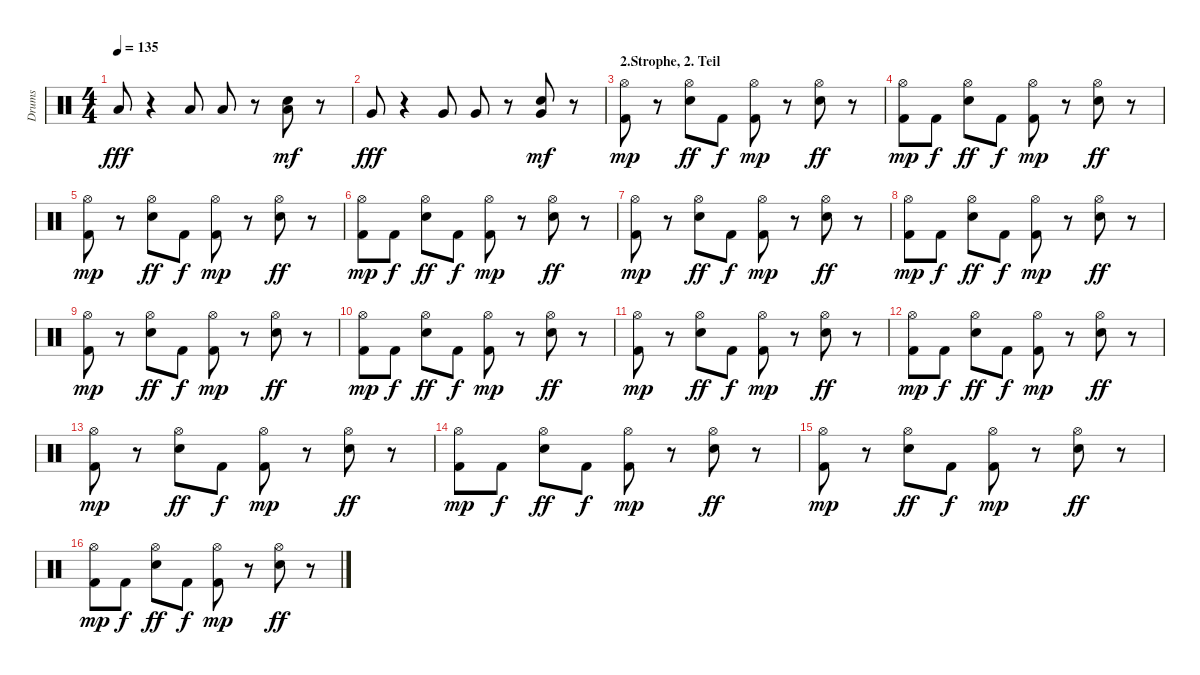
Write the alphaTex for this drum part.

\track ("Drums" "Drums") {instrument percussion}
\staff {score}
\articulation defaults
\ts (4 4)
\tempo 135
\clef neutral
\ks c "Low Floor Tom (hit)".8{dy fff}
r.4 "Low Floor Tom (hit)".8 "Low Floor Tom (hit)".8 r.8 ("Electric Snare (hit)" "Low Floor Tom (hit)").8{dy mf} r.8 |
"Very Low Tom (hit)".8{dy fff} r.4 "Very Low Tom (hit)".8 "Very Low Tom (hit)".8 r.8 ("Electric Snare (hit)" "Very Low Tom (hit)").8{dy mf} r.8 |
\section ("" "2.Strophe, 2. Teil")
("Hi-Hat (open)" "Kick (hit) 2").8{dy mp} r.8 ("Hi-Hat (open)" "Electric Snare (hit)").8{dy ff} "Kick (hit) 2".8{dy f} ("Hi-Hat (open)" "Kick (hit) 2").8{dy mp} r.8 ("Hi-Hat (open)" "Electric Snare (hit)").8{dy ff} r.8 |
("Hi-Hat (open)" "Kick (hit) 2").8{dy mp} "Kick (hit) 2".8{dy f} ("Hi-Hat (open)" "Electric Snare (hit)").8{dy ff} "Kick (hit) 2".8{dy f} ("Hi-Hat (open)" "Kick (hit) 2").8{dy mp} r.8 ("Hi-Hat (open)" "Electric Snare (hit)").8{dy ff} r.8 |
("Hi-Hat (open)" "Kick (hit) 2").8{dy mp} r.8 ("Hi-Hat (open)" "Electric Snare (hit)").8{dy ff} "Kick (hit) 2".8{dy f} ("Hi-Hat (open)" "Kick (hit) 2").8{dy mp} r.8 ("Hi-Hat (open)" "Electric Snare (hit)").8{dy ff} r.8 |
("Hi-Hat (open)" "Kick (hit) 2").8{dy mp} "Kick (hit) 2".8{dy f} ("Hi-Hat (open)" "Electric Snare (hit)").8{dy ff} "Kick (hit) 2".8{dy f} ("Hi-Hat (open)" "Kick (hit) 2").8{dy mp} r.8 ("Hi-Hat (open)" "Electric Snare (hit)").8{dy ff} r.8 |
("Hi-Hat (open)" "Kick (hit) 2").8{dy mp} r.8 ("Hi-Hat (open)" "Electric Snare (hit)").8{dy ff} "Kick (hit) 2".8{dy f} ("Hi-Hat (open)" "Kick (hit) 2").8{dy mp} r.8 ("Hi-Hat (open)" "Electric Snare (hit)").8{dy ff} r.8 |
("Hi-Hat (open)" "Kick (hit) 2").8{dy mp} "Kick (hit) 2".8{dy f} ("Hi-Hat (open)" "Electric Snare (hit)").8{dy ff} "Kick (hit) 2".8{dy f} ("Hi-Hat (open)" "Kick (hit) 2").8{dy mp} r.8 ("Hi-Hat (open)" "Electric Snare (hit)").8{dy ff} r.8 |
("Hi-Hat (open)" "Kick (hit) 2").8{dy mp} r.8 ("Hi-Hat (open)" "Electric Snare (hit)").8{dy ff} "Kick (hit) 2".8{dy f} ("Hi-Hat (open)" "Kick (hit) 2").8{dy mp} r.8 ("Hi-Hat (open)" "Electric Snare (hit)").8{dy ff} r.8 |
("Hi-Hat (open)" "Kick (hit) 2").8{dy mp} "Kick (hit) 2".8{dy f} ("Hi-Hat (open)" "Electric Snare (hit)").8{dy ff} "Kick (hit) 2".8{dy f} ("Hi-Hat (open)" "Kick (hit) 2").8{dy mp} r.8 ("Hi-Hat (open)" "Electric Snare (hit)").8{dy ff} r.8 |
("Hi-Hat (open)" "Kick (hit) 2").8{dy mp} r.8 ("Hi-Hat (open)" "Electric Snare (hit)").8{dy ff} "Kick (hit) 2".8{dy f} ("Hi-Hat (open)" "Kick (hit) 2").8{dy mp} r.8 ("Hi-Hat (open)" "Electric Snare (hit)").8{dy ff} r.8 |
("Hi-Hat (open)" "Kick (hit) 2").8{dy mp} "Kick (hit) 2".8{dy f} ("Hi-Hat (open)" "Electric Snare (hit)").8{dy ff} "Kick (hit) 2".8{dy f} ("Hi-Hat (open)" "Kick (hit) 2").8{dy mp} r.8 ("Hi-Hat (open)" "Electric Snare (hit)").8{dy ff} r.8 |
("Hi-Hat (open)" "Kick (hit) 2").8{dy mp} r.8 ("Hi-Hat (open)" "Electric Snare (hit)").8{dy ff} "Kick (hit) 2".8{dy f} ("Hi-Hat (open)" "Kick (hit) 2").8{dy mp} r.8 ("Hi-Hat (open)" "Electric Snare (hit)").8{dy ff} r.8 |
("Hi-Hat (open)" "Kick (hit) 2").8{dy mp} "Kick (hit) 2".8{dy f} ("Hi-Hat (open)" "Electric Snare (hit)").8{dy ff} "Kick (hit) 2".8{dy f} ("Hi-Hat (open)" "Kick (hit) 2").8{dy mp} r.8 ("Hi-Hat (open)" "Electric Snare (hit)").8{dy ff} r.8 |
("Hi-Hat (open)" "Kick (hit) 2").8{dy mp} r.8 ("Hi-Hat (open)" "Electric Snare (hit)").8{dy ff} "Kick (hit) 2".8{dy f} ("Hi-Hat (open)" "Kick (hit) 2").8{dy mp} r.8 ("Hi-Hat (open)" "Electric Snare (hit)").8{dy ff} r.8 |
("Hi-Hat (open)" "Kick (hit) 2").8{dy mp} "Kick (hit) 2".8{dy f} ("Hi-Hat (open)" "Electric Snare (hit)").8{dy ff} "Kick (hit) 2".8{dy f} ("Hi-Hat (open)" "Kick (hit) 2").8{dy mp} r.8 ("Hi-Hat (open)" "Electric Snare (hit)").8{dy ff} r.8
